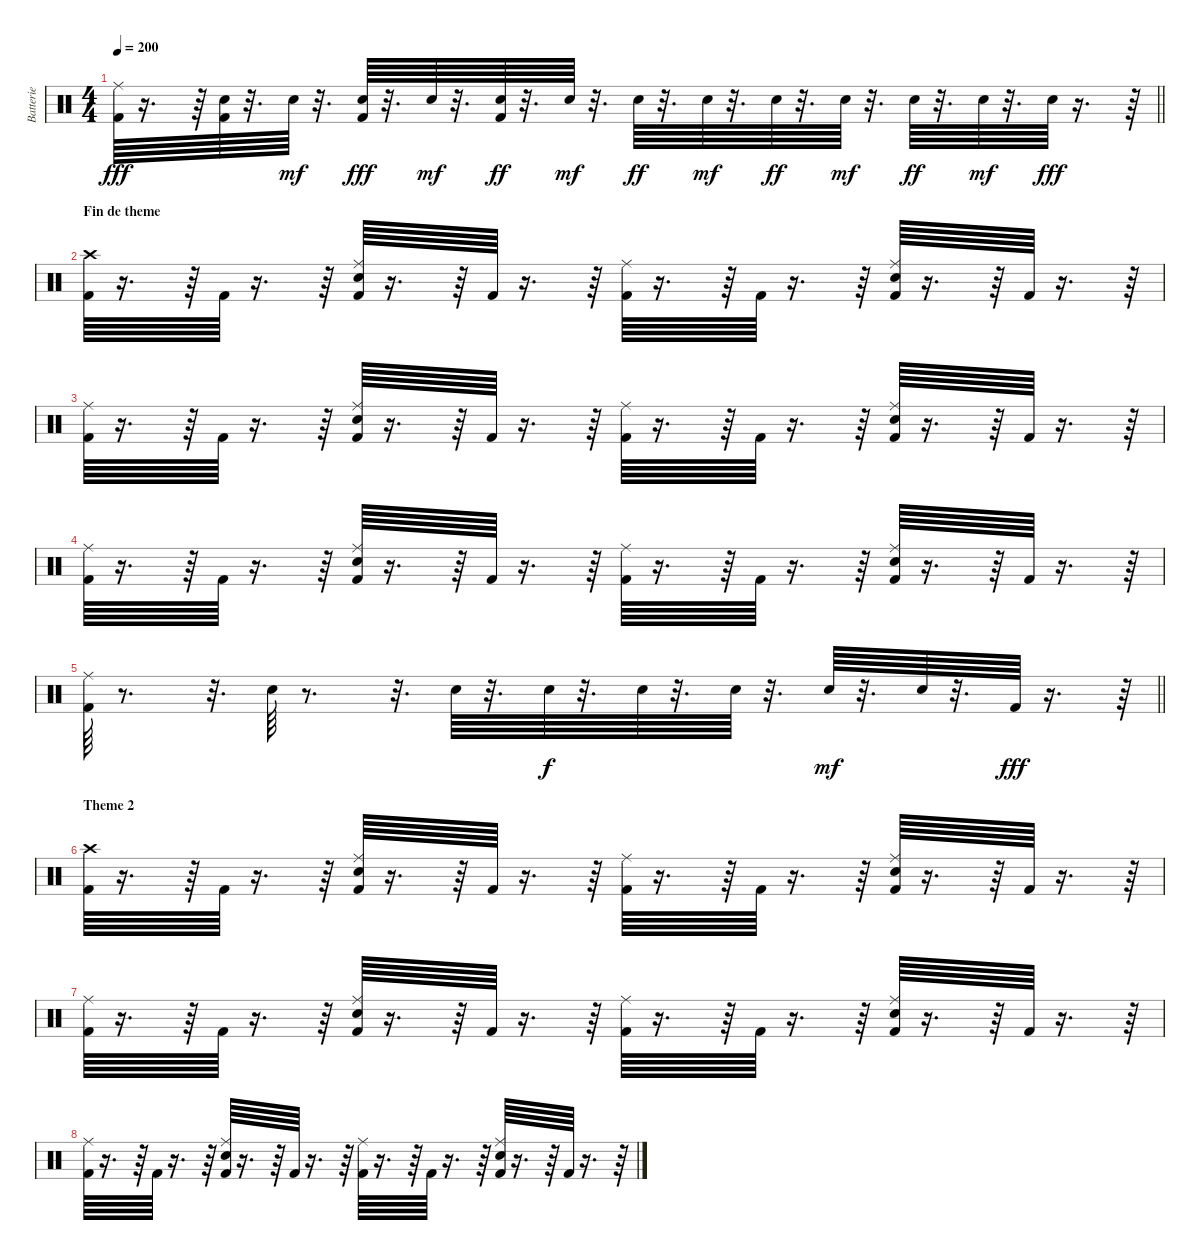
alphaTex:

\track ("Batterie" "Batterie") {instrument percussion}
\staff {score}
\articulation defaults
\ts (4 4)
\tempo 200
\clef neutral
\barLineRight lightlight
\ks c
("Kick (hit) 2" "Ride (middle)").64{dy fff} r.16{d} r.64 ("Snare (hit) 2" "Kick (hit) 2").64 r.32{d} "Snare (hit) 2".64{dy mf} r.32{d} ("Snare (hit) 2" "Kick (hit) 2").64{dy fff} r.32{d} "Snare (hit) 2".64{dy mf} r.32{d} ("Kick (hit) 2" "Snare (hit) 2").64{dy ff} r.32{d} "Snare (hit) 2".64{dy mf} r.32{d} "Snare (hit) 2".64{dy ff} r.32{d} "Snare (hit) 2".64{dy mf} r.32{d} "Snare (hit) 2".64{dy ff} r.32{d} "Snare (hit) 2".64{dy mf} r.32{d} "Snare (hit) 2".64{dy ff} r.32{d} "Snare (hit) 2".64{dy mf} r.32{d} "Snare (hit) 2".64{dy fff} r.16{d} r.64 |
\section ("" "Fin de theme")
("Kick (hit) 2" "Crash high (hit)").64 r.16{d} r.64 "Kick (hit) 2".64 r.16{d} r.64 ("Kick (hit) 2" "Snare (hit) 2" "Ride (middle)").64 r.16{d} r.64 "Kick (hit) 2".64 r.16{d} r.64 ("Kick (hit) 2" "Ride (middle)").64 r.16{d} r.64 "Kick (hit) 2".64 r.16{d} r.64 ("Kick (hit) 2" "Snare (hit) 2" "Ride (middle)").64 r.16{d} r.64 "Kick (hit) 2".64 r.16{d} r.64 |
("Kick (hit) 2" "Ride (middle)").64 r.16{d} r.64 "Kick (hit) 2".64 r.16{d} r.64 ("Kick (hit) 2" "Snare (hit) 2" "Ride (middle)").64 r.16{d} r.64 "Kick (hit) 2".64 r.16{d} r.64 ("Kick (hit) 2" "Ride (middle)").64 r.16{d} r.64 "Kick (hit) 2".64 r.16{d} r.64 ("Kick (hit) 2" "Snare (hit) 2" "Ride (middle)").64 r.16{d} r.64 "Kick (hit) 2".64 r.16{d} r.64 |
("Kick (hit) 2" "Ride (middle)").64 r.16{d} r.64 "Kick (hit) 2".64 r.16{d} r.64 ("Kick (hit) 2" "Snare (hit) 2" "Ride (middle)").64 r.16{d} r.64 "Kick (hit) 2".64 r.16{d} r.64 ("Kick (hit) 2" "Ride (middle)").64 r.16{d} r.64 "Kick (hit) 2".64 r.16{d} r.64 ("Kick (hit) 2" "Snare (hit) 2" "Ride (middle)").64 r.16{d} r.64 "Kick (hit) 2".64 r.16{d} r.64 |
\barLineRight lightlight
("Kick (hit) 2" "Ride (middle)").64 r.8{d} r.32{d} "Snare (hit) 2".64 r.8{d} r.32{d} "Snare (hit) 2".64 r.32{d} "Snare (hit) 2".64{dy f} r.32{d} "Snare (hit) 2".64 r.32{d} "Snare (hit) 2".64 r.32{d} "Snare (hit) 2".64{dy mf} r.32{d} "Snare (hit) 2".64 r.32{d} "Kick (hit) 2".64{dy fff} r.16{d} r.64 |
\section ("" "Theme 2")
("Kick (hit) 2" "Crash high (hit)").64 r.16{d} r.64 "Kick (hit) 2".64 r.16{d} r.64 ("Kick (hit) 2" "Snare (hit) 2" "Ride (middle)").64 r.16{d} r.64 "Kick (hit) 2".64 r.16{d} r.64 ("Kick (hit) 2" "Ride (middle)").64 r.16{d} r.64 "Kick (hit) 2".64 r.16{d} r.64 ("Kick (hit) 2" "Snare (hit) 2" "Ride (middle)").64 r.16{d} r.64 "Kick (hit) 2".64 r.16{d} r.64 |
("Kick (hit) 2" "Ride (middle)").64 r.16{d} r.64 "Kick (hit) 2".64 r.16{d} r.64 ("Kick (hit) 2" "Snare (hit) 2" "Ride (middle)").64 r.16{d} r.64 "Kick (hit) 2".64 r.16{d} r.64 ("Kick (hit) 2" "Ride (middle)").64 r.16{d} r.64 "Kick (hit) 2".64 r.16{d} r.64 ("Kick (hit) 2" "Snare (hit) 2" "Ride (middle)").64 r.16{d} r.64 "Kick (hit) 2".64 r.16{d} r.64 |
("Kick (hit) 2" "Ride (middle)").64 r.16{d} r.64 "Kick (hit) 2".64 r.16{d} r.64 ("Kick (hit) 2" "Snare (hit) 2" "Ride (middle)").64 r.16{d} r.64 "Kick (hit) 2".64 r.16{d} r.64 ("Kick (hit) 2" "Ride (middle)").64 r.16{d} r.64 "Kick (hit) 2".64 r.16{d} r.64 ("Kick (hit) 2" "Snare (hit) 2" "Ride (middle)").64 r.16{d} r.64 "Kick (hit) 2".64 r.16{d} r.64
